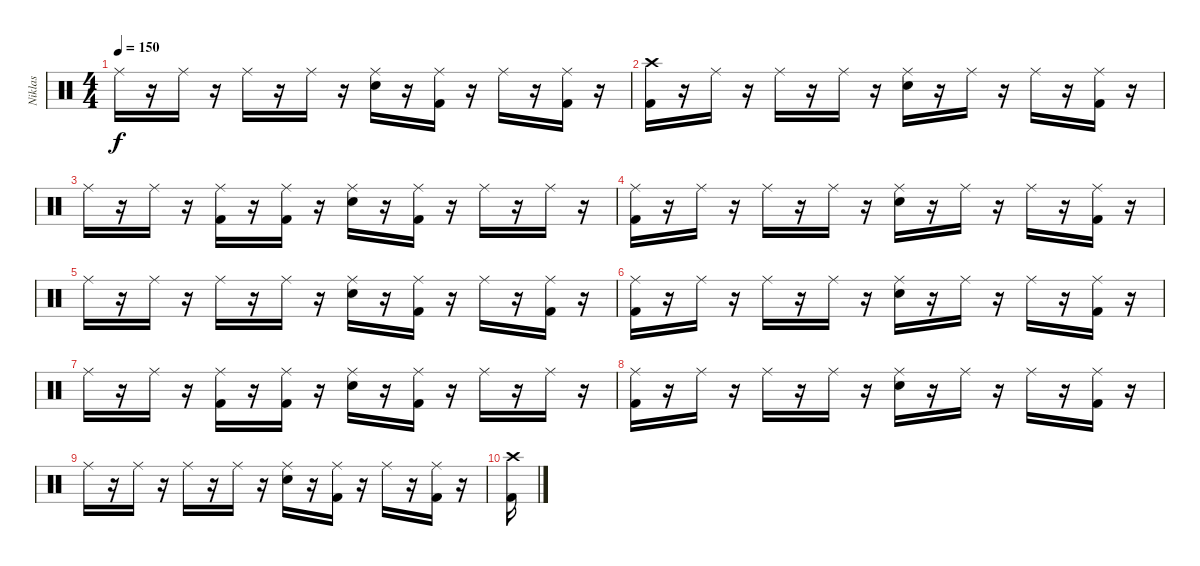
\track ("Niklas" "Niklas") {instrument percussion}
\staff {score}
\articulation defaults
\ts (4 4)
\tempo 150
\clef neutral
\ks c "Ride (middle)".16{dy f}
r.16 "Ride (middle)".16 r.16 "Ride (middle)".16 r.16 "Ride (middle)".16 r.16 ("Ride (middle)" "Electric Snare (hit)").16 r.16 ("Ride (middle)" "Kick (hit) 2").16 r.16 "Ride (middle)".16 r.16 ("Ride (middle)" "Kick (hit) 2").16 r.16 |
("Crash high (hit)" "Kick (hit) 2").16 r.16 "Ride (middle)".16 r.16 "Ride (middle)".16 r.16 "Ride (middle)".16 r.16 ("Ride (middle)" "Electric Snare (hit)").16 r.16 "Ride (middle)".16 r.16 "Ride (middle)".16 r.16 ("Ride (middle)" "Kick (hit) 2").16 r.16 |
"Ride (middle)".16 r.16 "Ride (middle)".16 r.16 ("Ride (middle)" "Kick (hit) 2").16 r.16 ("Ride (middle)" "Kick (hit) 2").16 r.16 ("Ride (middle)" "Electric Snare (hit)").16 r.16 ("Ride (middle)" "Kick (hit) 2").16 r.16 "Ride (middle)".16 r.16 "Ride (middle)".16 r.16 |
("Ride (middle)" "Kick (hit) 2").16 r.16 "Ride (middle)".16 r.16 "Ride (middle)".16 r.16 "Ride (middle)".16 r.16 ("Ride (middle)" "Electric Snare (hit)").16 r.16 "Ride (middle)".16 r.16 "Ride (middle)".16 r.16 ("Ride (middle)" "Kick (hit) 2").16 r.16 |
"Ride (middle)".16 r.16 "Ride (middle)".16 r.16 "Ride (middle)".16 r.16 "Ride (middle)".16 r.16 ("Ride (middle)" "Electric Snare (hit)").16 r.16 ("Ride (middle)" "Kick (hit) 2").16 r.16 "Ride (middle)".16 r.16 ("Ride (middle)" "Kick (hit) 2").16 r.16 |
("Ride (middle)" "Kick (hit) 2").16 r.16 "Ride (middle)".16 r.16 "Ride (middle)".16 r.16 "Ride (middle)".16 r.16 ("Ride (middle)" "Electric Snare (hit)").16 r.16 "Ride (middle)".16 r.16 "Ride (middle)".16 r.16 ("Ride (middle)" "Kick (hit) 2").16 r.16 |
"Ride (middle)".16 r.16 "Ride (middle)".16 r.16 ("Ride (middle)" "Kick (hit) 2").16 r.16 ("Ride (middle)" "Kick (hit) 2").16 r.16 ("Ride (middle)" "Electric Snare (hit)").16 r.16 ("Ride (middle)" "Kick (hit) 2").16 r.16 "Ride (middle)".16 r.16 "Ride (middle)".16 r.16 |
("Ride (middle)" "Kick (hit) 2").16 r.16 "Ride (middle)".16 r.16 "Ride (middle)".16 r.16 "Ride (middle)".16 r.16 ("Ride (middle)" "Electric Snare (hit)").16 r.16 "Ride (middle)".16 r.16 "Ride (middle)".16 r.16 ("Ride (middle)" "Kick (hit) 2").16 r.16 |
"Ride (middle)".16 r.16 "Ride (middle)".16 r.16 "Ride (middle)".16 r.16 "Ride (middle)".16 r.16 ("Ride (middle)" "Electric Snare (hit)").16 r.16 ("Ride (middle)" "Kick (hit) 2").16 r.16 "Ride (middle)".16 r.16 ("Ride (middle)" "Kick (hit) 2").16 r.16 |
("Crash high (hit)" "Kick (hit) 2").16
